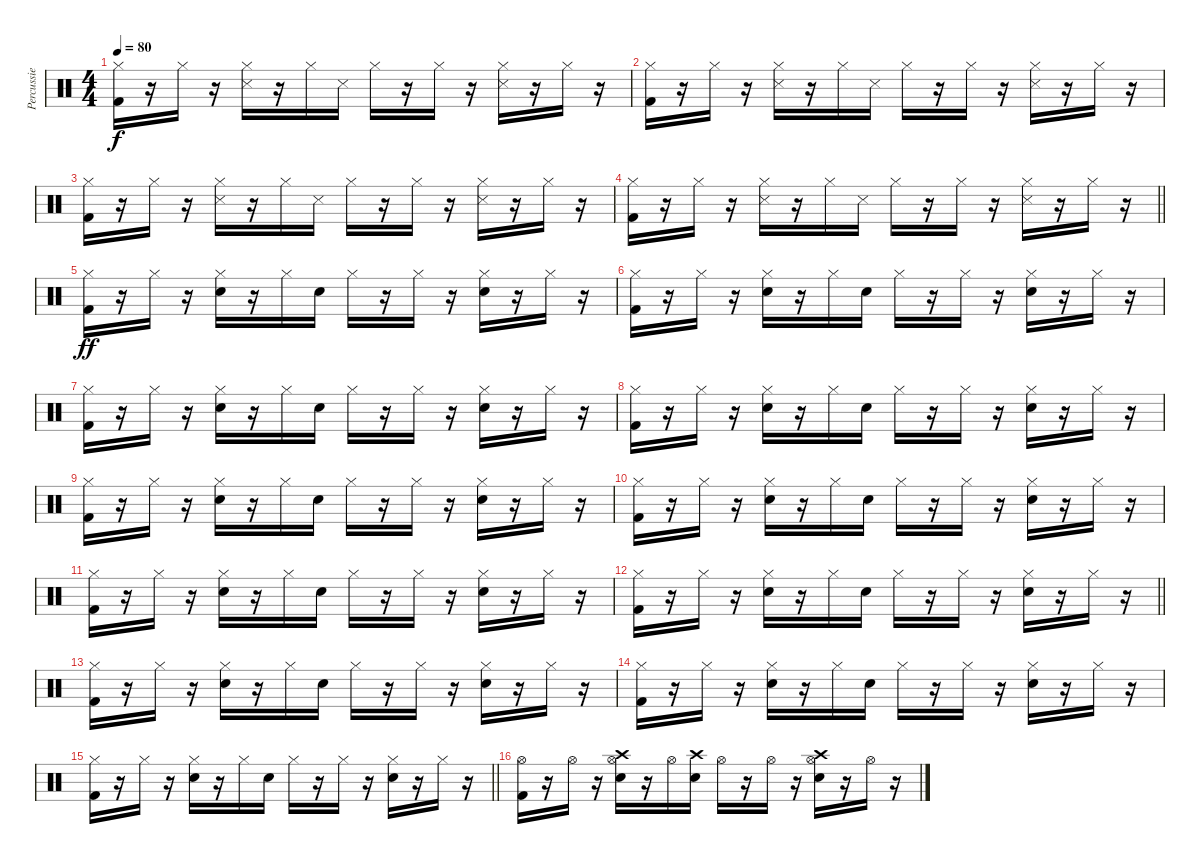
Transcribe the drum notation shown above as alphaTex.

\track ("Percussie" "Percussie") {instrument percussion}
\staff {score}
\articulation defaults
\ts (4 4)
\tempo 80
\clef neutral
\ks c
("Kick (hit) 2" "Hi-Hat (closed)").16{dy f} r.16 "Hi-Hat (closed)".16 r.16 ("Snare (side stick) 3" "Hi-Hat (closed)").16 r.16 "Hi-Hat (closed)".16 "Snare (side stick) 3".16 "Hi-Hat (closed)".16 r.16 "Hi-Hat (closed)".16 r.16 ("Snare (side stick) 3" "Hi-Hat (closed)").16 r.16 "Hi-Hat (closed)".16 r.16 |
("Kick (hit) 2" "Hi-Hat (closed)").16 r.16 "Hi-Hat (closed)".16 r.16 ("Snare (side stick) 3" "Hi-Hat (closed)").16 r.16 "Hi-Hat (closed)".16 "Snare (side stick) 3".16 "Hi-Hat (closed)".16 r.16 "Hi-Hat (closed)".16 r.16 ("Snare (side stick) 3" "Hi-Hat (closed)").16 r.16 "Hi-Hat (closed)".16 r.16 |
("Kick (hit) 2" "Hi-Hat (closed)").16 r.16 "Hi-Hat (closed)".16 r.16 ("Snare (side stick) 3" "Hi-Hat (closed)").16 r.16 "Hi-Hat (closed)".16 "Snare (side stick) 3".16 "Hi-Hat (closed)".16 r.16 "Hi-Hat (closed)".16 r.16 ("Snare (side stick) 3" "Hi-Hat (closed)").16 r.16 "Hi-Hat (closed)".16 r.16 |
\barLineRight lightlight
("Kick (hit) 2" "Hi-Hat (closed)").16 r.16 "Hi-Hat (closed)".16 r.16 ("Snare (side stick) 3" "Hi-Hat (closed)").16 r.16 "Hi-Hat (closed)".16 "Snare (side stick) 3".16 "Hi-Hat (closed)".16 r.16 "Hi-Hat (closed)".16 r.16 ("Snare (side stick) 3" "Hi-Hat (closed)").16 r.16 "Hi-Hat (closed)".16 r.16 |
("Kick (hit) 2" "Hi-Hat (closed)").16{dy ff} r.16 "Hi-Hat (closed)".16 r.16 ("Electric Snare (hit)" "Hi-Hat (closed)").16 r.16 "Hi-Hat (closed)".16 "Electric Snare (hit)".16 "Hi-Hat (closed)".16 r.16 "Hi-Hat (closed)".16 r.16 ("Electric Snare (hit)" "Hi-Hat (closed)").16 r.16 "Hi-Hat (closed)".16 r.16 |
("Kick (hit) 2" "Hi-Hat (closed)").16 r.16 "Hi-Hat (closed)".16 r.16 ("Electric Snare (hit)" "Hi-Hat (closed)").16 r.16 "Hi-Hat (closed)".16 "Electric Snare (hit)".16 "Hi-Hat (closed)".16 r.16 "Hi-Hat (closed)".16 r.16 ("Electric Snare (hit)" "Hi-Hat (closed)").16 r.16 "Hi-Hat (closed)".16 r.16 |
("Kick (hit) 2" "Hi-Hat (closed)").16 r.16 "Hi-Hat (closed)".16 r.16 ("Electric Snare (hit)" "Hi-Hat (closed)").16 r.16 "Hi-Hat (closed)".16 "Electric Snare (hit)".16 "Hi-Hat (closed)".16 r.16 "Hi-Hat (closed)".16 r.16 ("Electric Snare (hit)" "Hi-Hat (closed)").16 r.16 "Hi-Hat (closed)".16 r.16 |
("Kick (hit) 2" "Hi-Hat (closed)").16 r.16 "Hi-Hat (closed)".16 r.16 ("Electric Snare (hit)" "Hi-Hat (closed)").16 r.16 "Hi-Hat (closed)".16 "Electric Snare (hit)".16 "Hi-Hat (closed)".16 r.16 "Hi-Hat (closed)".16 r.16 ("Electric Snare (hit)" "Hi-Hat (closed)").16 r.16 "Hi-Hat (closed)".16 r.16 |
("Kick (hit) 2" "Hi-Hat (closed)").16 r.16 "Hi-Hat (closed)".16 r.16 ("Electric Snare (hit)" "Hi-Hat (closed)").16 r.16 "Hi-Hat (closed)".16 "Electric Snare (hit)".16 "Hi-Hat (closed)".16 r.16 "Hi-Hat (closed)".16 r.16 ("Electric Snare (hit)" "Hi-Hat (closed)").16 r.16 "Hi-Hat (closed)".16 r.16 |
("Kick (hit) 2" "Hi-Hat (closed)").16 r.16 "Hi-Hat (closed)".16 r.16 ("Electric Snare (hit)" "Hi-Hat (closed)").16 r.16 "Hi-Hat (closed)".16 "Electric Snare (hit)".16 "Hi-Hat (closed)".16 r.16 "Hi-Hat (closed)".16 r.16 ("Electric Snare (hit)" "Hi-Hat (closed)").16 r.16 "Hi-Hat (closed)".16 r.16 |
("Kick (hit) 2" "Hi-Hat (closed)").16 r.16 "Hi-Hat (closed)".16 r.16 ("Electric Snare (hit)" "Hi-Hat (closed)").16 r.16 "Hi-Hat (closed)".16 "Electric Snare (hit)".16 "Hi-Hat (closed)".16 r.16 "Hi-Hat (closed)".16 r.16 ("Electric Snare (hit)" "Hi-Hat (closed)").16 r.16 "Hi-Hat (closed)".16 r.16 |
\barLineRight lightlight
("Kick (hit) 2" "Hi-Hat (closed)").16 r.16 "Hi-Hat (closed)".16 r.16 ("Electric Snare (hit)" "Hi-Hat (closed)").16 r.16 "Hi-Hat (closed)".16 "Electric Snare (hit)".16 "Hi-Hat (closed)".16 r.16 "Hi-Hat (closed)".16 r.16 ("Electric Snare (hit)" "Hi-Hat (closed)").16 r.16 "Hi-Hat (closed)".16 r.16 |
("Kick (hit) 2" "Hi-Hat (closed)").16 r.16 "Hi-Hat (closed)".16 r.16 ("Electric Snare (hit)" "Hi-Hat (closed)").16 r.16 "Hi-Hat (closed)".16 "Electric Snare (hit)".16 "Hi-Hat (closed)".16 r.16 "Hi-Hat (closed)".16 r.16 ("Electric Snare (hit)" "Hi-Hat (closed)").16 r.16 "Hi-Hat (closed)".16 r.16 |
("Kick (hit) 2" "Hi-Hat (closed)").16 r.16 "Hi-Hat (closed)".16 r.16 ("Electric Snare (hit)" "Hi-Hat (closed)").16 r.16 "Hi-Hat (closed)".16 "Electric Snare (hit)".16 "Hi-Hat (closed)".16 r.16 "Hi-Hat (closed)".16 r.16 ("Electric Snare (hit)" "Hi-Hat (closed)").16 r.16 "Hi-Hat (closed)".16 r.16 |
\barLineRight lightlight
("Kick (hit) 2" "Hi-Hat (closed)").16 r.16 "Hi-Hat (closed)".16 r.16 ("Electric Snare (hit)" "Hi-Hat (closed)").16 r.16 "Hi-Hat (closed)".16 "Electric Snare (hit)".16 "Hi-Hat (closed)".16 r.16 "Hi-Hat (closed)".16 r.16 ("Electric Snare (hit)" "Hi-Hat (closed)").16 r.16 "Hi-Hat (closed)".16 r.16 |
("Kick (hit) 2" "Hi-Hat (open)").16 r.16 "Hi-Hat (open)".16 r.16 ("Electric Snare (hit)" "Hi-Hat (open)" "Crash high (hit)").16 r.16 "Hi-Hat (open)".16 ("Electric Snare (hit)" "Crash high (hit)").16 "Hi-Hat (open)".16 r.16 "Hi-Hat (open)".16 r.16 ("Electric Snare (hit)" "Hi-Hat (open)" "Crash high (hit)").16 r.16 "Hi-Hat (open)".16 r.16
